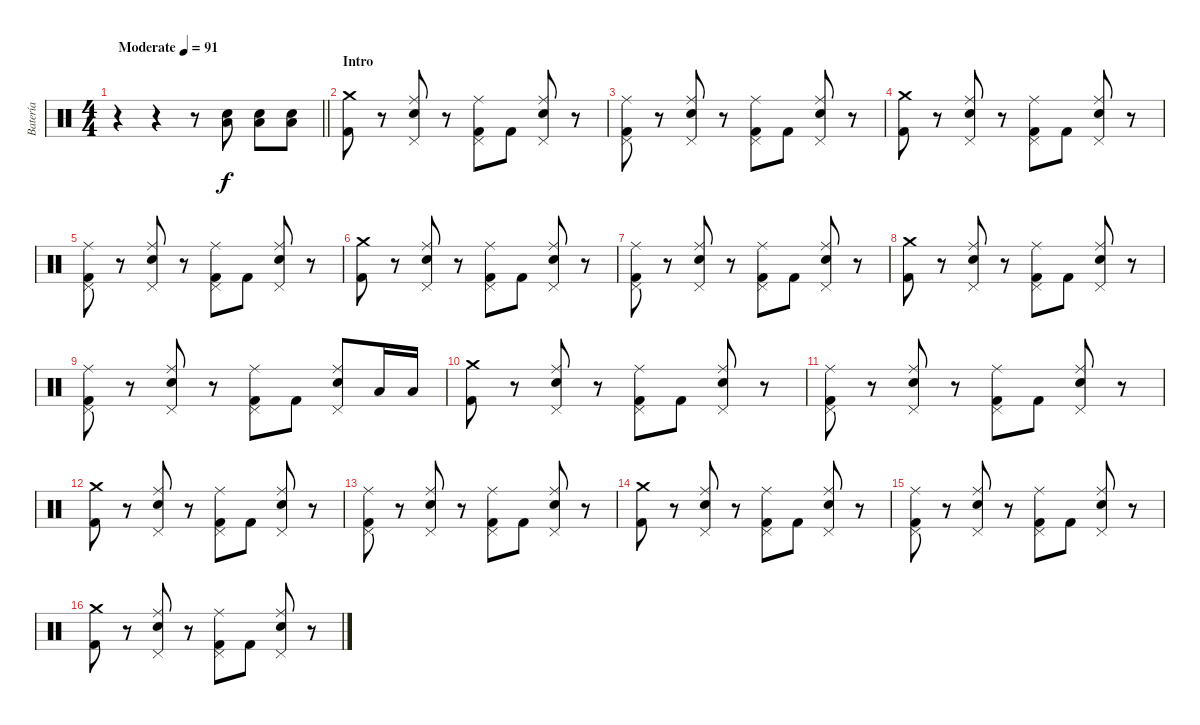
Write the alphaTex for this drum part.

\track ("Batería" "Batería") {instrument percussion}
\staff {score}
\articulation defaults
\ts (4 4)
\tempo (91 "Moderate")
\clef neutral
\barLineRight lightlight
\ks c
r.4{dy f} r.4 r.8 ("Electric Snare (hit)" "Low Tom (hit)").8 ("Electric Snare (hit)" "Low Tom (hit)").8 ("Electric Snare (hit)" "Low Tom (hit)").8 |
\section ("" "Intro")
("Crash medium (hit)" "Kick (hit) 2").8 r.8 ("Pedal Hi-Hat (hit)" "Snare (hit) 2" "Ride (middle)").8 r.8 ("Pedal Hi-Hat (hit)" "Kick (hit) 2" "Ride (middle)").8 "Kick (hit) 2".8 ("Pedal Hi-Hat (hit)" "Snare (hit) 2" "Ride (middle)").8 r.8 |
("Pedal Hi-Hat (hit)" "Ride (middle)" "Kick (hit) 2").8 r.8 ("Pedal Hi-Hat (hit)" "Snare (hit) 2" "Ride (middle)").8 r.8 ("Pedal Hi-Hat (hit)" "Kick (hit) 2" "Ride (middle)").8 "Kick (hit) 2".8 ("Pedal Hi-Hat (hit)" "Snare (hit) 2" "Ride (middle)").8 r.8 |
("Crash medium (hit)" "Kick (hit) 2").8 r.8 ("Pedal Hi-Hat (hit)" "Snare (hit) 2" "Ride (middle)").8 r.8 ("Pedal Hi-Hat (hit)" "Kick (hit) 2" "Ride (middle)").8 "Kick (hit) 2".8 ("Pedal Hi-Hat (hit)" "Snare (hit) 2" "Ride (middle)").8 r.8 |
("Pedal Hi-Hat (hit)" "Ride (middle)" "Kick (hit) 2").8 r.8 ("Pedal Hi-Hat (hit)" "Snare (hit) 2" "Ride (middle)").8 r.8 ("Pedal Hi-Hat (hit)" "Kick (hit) 2" "Ride (middle)").8 "Kick (hit) 2".8 ("Pedal Hi-Hat (hit)" "Snare (hit) 2" "Ride (middle)").8 r.8 |
("Crash medium (hit)" "Kick (hit) 2").8 r.8 ("Pedal Hi-Hat (hit)" "Snare (hit) 2" "Ride (middle)").8 r.8 ("Pedal Hi-Hat (hit)" "Kick (hit) 2" "Ride (middle)").8 "Kick (hit) 2".8 ("Pedal Hi-Hat (hit)" "Snare (hit) 2" "Ride (middle)").8 r.8 |
("Pedal Hi-Hat (hit)" "Ride (middle)" "Kick (hit) 2").8 r.8 ("Pedal Hi-Hat (hit)" "Snare (hit) 2" "Ride (middle)").8 r.8 ("Pedal Hi-Hat (hit)" "Kick (hit) 2" "Ride (middle)").8 "Kick (hit) 2".8 ("Pedal Hi-Hat (hit)" "Snare (hit) 2" "Ride (middle)").8 r.8 |
("Crash medium (hit)" "Kick (hit) 2").8 r.8 ("Pedal Hi-Hat (hit)" "Snare (hit) 2" "Ride (middle)").8 r.8 ("Pedal Hi-Hat (hit)" "Kick (hit) 2" "Ride (middle)").8 "Kick (hit) 2".8 ("Pedal Hi-Hat (hit)" "Snare (hit) 2" "Ride (middle)").8 r.8 |
("Pedal Hi-Hat (hit)" "Ride (middle)" "Kick (hit) 2").8 r.8 ("Pedal Hi-Hat (hit)" "Snare (hit) 2" "Ride (middle)").8 r.8 ("Pedal Hi-Hat (hit)" "Kick (hit) 2" "Ride (middle)").8 "Kick (hit) 2".8 ("Pedal Hi-Hat (hit)" "Snare (hit) 2" "Ride (middle)").8 "Low Tom (hit)".16 "Low Tom (hit)".16 |
("Crash medium (hit)" "Kick (hit) 2").8 r.8 ("Pedal Hi-Hat (hit)" "Snare (hit) 2" "Ride (middle)").8 r.8 ("Pedal Hi-Hat (hit)" "Kick (hit) 2" "Ride (middle)").8 "Kick (hit) 2".8 ("Pedal Hi-Hat (hit)" "Snare (hit) 2" "Ride (middle)").8 r.8 |
("Pedal Hi-Hat (hit)" "Ride (middle)" "Kick (hit) 2").8 r.8 ("Pedal Hi-Hat (hit)" "Snare (hit) 2" "Ride (middle)").8 r.8 ("Pedal Hi-Hat (hit)" "Kick (hit) 2" "Ride (middle)").8 "Kick (hit) 2".8 ("Pedal Hi-Hat (hit)" "Snare (hit) 2" "Ride (middle)").8 r.8 |
("Crash medium (hit)" "Kick (hit) 2").8 r.8 ("Pedal Hi-Hat (hit)" "Snare (hit) 2" "Ride (middle)").8 r.8 ("Pedal Hi-Hat (hit)" "Kick (hit) 2" "Ride (middle)").8 "Kick (hit) 2".8 ("Pedal Hi-Hat (hit)" "Snare (hit) 2" "Ride (middle)").8 r.8 |
("Pedal Hi-Hat (hit)" "Ride (middle)" "Kick (hit) 2").8 r.8 ("Pedal Hi-Hat (hit)" "Snare (hit) 2" "Ride (middle)").8 r.8 ("Pedal Hi-Hat (hit)" "Kick (hit) 2" "Ride (middle)").8 "Kick (hit) 2".8 ("Pedal Hi-Hat (hit)" "Snare (hit) 2" "Ride (middle)").8 r.8 |
("Crash medium (hit)" "Kick (hit) 2").8 r.8 ("Pedal Hi-Hat (hit)" "Snare (hit) 2" "Ride (middle)").8 r.8 ("Pedal Hi-Hat (hit)" "Kick (hit) 2" "Ride (middle)").8 "Kick (hit) 2".8 ("Pedal Hi-Hat (hit)" "Snare (hit) 2" "Ride (middle)").8 r.8 |
("Pedal Hi-Hat (hit)" "Ride (middle)" "Kick (hit) 2").8 r.8 ("Pedal Hi-Hat (hit)" "Snare (hit) 2" "Ride (middle)").8 r.8 ("Pedal Hi-Hat (hit)" "Kick (hit) 2" "Ride (middle)").8 "Kick (hit) 2".8 ("Pedal Hi-Hat (hit)" "Snare (hit) 2" "Ride (middle)").8 r.8 |
("Crash medium (hit)" "Kick (hit) 2").8 r.8 ("Pedal Hi-Hat (hit)" "Snare (hit) 2" "Ride (middle)").8 r.8 ("Pedal Hi-Hat (hit)" "Kick (hit) 2" "Ride (middle)").8 "Kick (hit) 2".8 ("Pedal Hi-Hat (hit)" "Snare (hit) 2" "Ride (middle)").8 r.8
